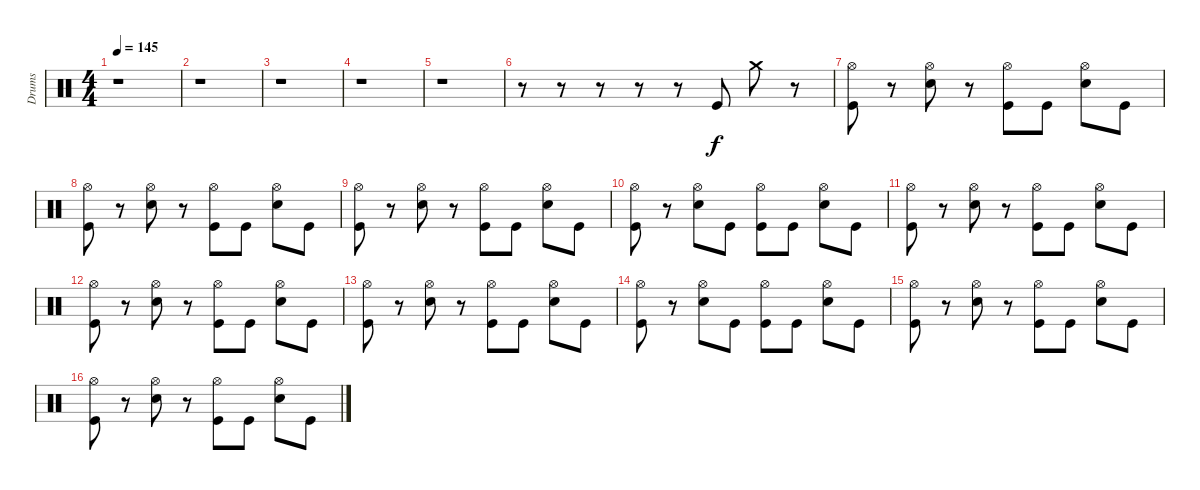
\track ("Drums" "Drums") {instrument percussion}
\staff {score}
\articulation defaults
\ts (4 4)
\tempo 145
\clef neutral
\ks c
r.1{dy f} |
r.1 |
r.1 |
r.1 |
r.1 |
r.8 r.8 r.8 r.8 r.8 "Kick (hit)".8 "Crash medium (hit)".8 r.8 |
("Hi-Hat (open)" "Kick (hit)").8 r.8 ("Hi-Hat (open)" "Snare (hit) 2").8 r.8 ("Hi-Hat (open)" "Kick (hit)").8 "Kick (hit)".8 ("Hi-Hat (open)" "Snare (hit) 2").8 "Kick (hit)".8 |
("Hi-Hat (open)" "Kick (hit)").8 r.8 ("Hi-Hat (open)" "Snare (hit) 2").8 r.8 ("Hi-Hat (open)" "Kick (hit)").8 "Kick (hit)".8 ("Hi-Hat (open)" "Snare (hit) 2").8 "Kick (hit)".8 |
("Hi-Hat (open)" "Kick (hit)").8 r.8 ("Hi-Hat (open)" "Snare (hit) 2").8 r.8 ("Hi-Hat (open)" "Kick (hit)").8 "Kick (hit)".8 ("Hi-Hat (open)" "Snare (hit) 2").8 "Kick (hit)".8 |
("Hi-Hat (open)" "Kick (hit)").8 r.8 ("Hi-Hat (open)" "Snare (hit) 2").8 "Kick (hit)".8 ("Hi-Hat (open)" "Kick (hit)").8 "Kick (hit)".8 ("Hi-Hat (open)" "Snare (hit) 2").8 "Kick (hit)".8 |
("Hi-Hat (open)" "Kick (hit)").8 r.8 ("Hi-Hat (open)" "Snare (hit) 2").8 r.8 ("Hi-Hat (open)" "Kick (hit)").8 "Kick (hit)".8 ("Hi-Hat (open)" "Snare (hit) 2").8 "Kick (hit)".8 |
("Hi-Hat (open)" "Kick (hit)").8 r.8 ("Hi-Hat (open)" "Snare (hit) 2").8 r.8 ("Hi-Hat (open)" "Kick (hit)").8 "Kick (hit)".8 ("Hi-Hat (open)" "Snare (hit) 2").8 "Kick (hit)".8 |
("Hi-Hat (open)" "Kick (hit)").8 r.8 ("Hi-Hat (open)" "Snare (hit) 2").8 r.8 ("Hi-Hat (open)" "Kick (hit)").8 "Kick (hit)".8 ("Hi-Hat (open)" "Snare (hit) 2").8 "Kick (hit)".8 |
("Hi-Hat (open)" "Kick (hit)").8 r.8 ("Hi-Hat (open)" "Snare (hit) 2").8 "Kick (hit)".8 ("Hi-Hat (open)" "Kick (hit)").8 "Kick (hit)".8 ("Hi-Hat (open)" "Snare (hit) 2").8 "Kick (hit)".8 |
("Hi-Hat (open)" "Kick (hit)").8 r.8 ("Hi-Hat (open)" "Snare (hit) 2").8 r.8 ("Hi-Hat (open)" "Kick (hit)").8 "Kick (hit)".8 ("Hi-Hat (open)" "Snare (hit) 2").8 "Kick (hit)".8 |
("Hi-Hat (open)" "Kick (hit)").8 r.8 ("Hi-Hat (open)" "Snare (hit) 2").8 r.8 ("Hi-Hat (open)" "Kick (hit)").8 "Kick (hit)".8 ("Hi-Hat (open)" "Snare (hit) 2").8 "Kick (hit)".8
